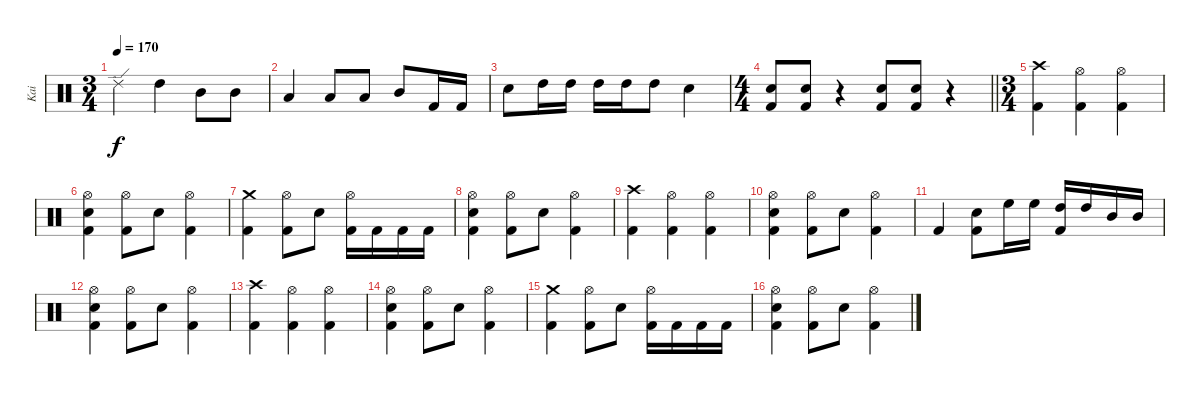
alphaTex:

\track ("Kai" "Kai") {instrument percussion}
\staff {score}
\articulation defaults
\ts (3 4)
\tempo 170
\clef neutral
\ks c "Ride (edge) 2".4{dy f} "High Tom (hit)".4 "Mid Tom (hit)".8 "Mid Tom (hit)".8
|
"Low Tom (hit)".4 "Low Tom (hit)".8 "Low Tom (hit)".8 "Mid Tom (hit)".8 "Kick (hit) 2".16 "Kick (hit) 2".16 |
"Electric Snare (hit)".8 "High Tom (hit)".16 "High Tom (hit)".16 "High Tom (hit)".16 "High Tom (hit)".16 "High Tom (hit)".8 "Electric Snare (hit)".4 |
\ts (4 4)
\barLineRight lightlight
("Electric Snare (hit)" "Kick (hit) 2").8 ("Electric Snare (hit)" "Kick (hit) 2").8 r.4 ("Electric Snare (hit)" "Kick (hit) 2").8 ("Electric Snare (hit)" "Kick (hit) 2").8 r.4 |
\ts (3 4)
\section ("" "")
("Crash high (hit)" "Kick (hit) 2").4 ("Hi-Hat (open)" "Kick (hit) 2").4 ("Hi-Hat (open)" "Kick (hit) 2").4 |
("Hi-Hat (open)" "Electric Snare (hit)" "Kick (hit) 2").4 ("Hi-Hat (open)" "Kick (hit) 2").8 "Electric Snare (hit)".8 ("Hi-Hat (open)" "Kick (hit) 2").4 |
("Crash medium (hit)" "Kick (hit) 2").4 ("Hi-Hat (open)" "Kick (hit) 2").8 "Electric Snare (hit)".8 ("Hi-Hat (open)" "Kick (hit) 2").16 "Kick (hit) 2".16 "Kick (hit) 2".16 "Kick (hit) 2".16 |
("Hi-Hat (open)" "Electric Snare (hit)" "Kick (hit) 2").4 ("Hi-Hat (open)" "Kick (hit) 2").8 "Electric Snare (hit)".8 ("Hi-Hat (open)" "Kick (hit) 2").4 |
("Crash high (hit)" "Kick (hit) 2").4 ("Hi-Hat (open)" "Kick (hit) 2").4 ("Hi-Hat (open)" "Kick (hit) 2").4 |
("Hi-Hat (open)" "Electric Snare (hit)" "Kick (hit) 2").4 ("Hi-Hat (open)" "Kick (hit) 2").8 "Electric Snare (hit)".8 ("Hi-Hat (open)" "Kick (hit) 2").4 |
"Kick (hit) 2".4 ("Electric Snare (hit)" "Kick (hit) 2").8 "High Floor Tom (hit)".16 "High Floor Tom (hit)".16 ("High Tom (hit)" "Kick (hit) 2").16 "High Tom (hit)".16 "Mid Tom (hit)".16 "Mid Tom (hit)".16 |
("Hi-Hat (open)" "Electric Snare (hit)" "Kick (hit) 2").4 ("Hi-Hat (open)" "Kick (hit) 2").8 "Electric Snare (hit)".8 ("Hi-Hat (open)" "Kick (hit) 2").4 |
("Crash high (hit)" "Kick (hit) 2").4 ("Hi-Hat (open)" "Kick (hit) 2").4 ("Hi-Hat (open)" "Kick (hit) 2").4 |
("Hi-Hat (open)" "Electric Snare (hit)" "Kick (hit) 2").4 ("Hi-Hat (open)" "Kick (hit) 2").8 "Electric Snare (hit)".8 ("Hi-Hat (open)" "Kick (hit) 2").4 |
("Crash medium (hit)" "Kick (hit) 2").4 ("Hi-Hat (open)" "Kick (hit) 2").8 "Electric Snare (hit)".8 ("Hi-Hat (open)" "Kick (hit) 2").16 "Kick (hit) 2".16 "Kick (hit) 2".16 "Kick (hit) 2".16 |
("Hi-Hat (open)" "Electric Snare (hit)" "Kick (hit) 2").4 ("Hi-Hat (open)" "Kick (hit) 2").8 "Electric Snare (hit)".8 ("Hi-Hat (open)" "Kick (hit) 2").4
